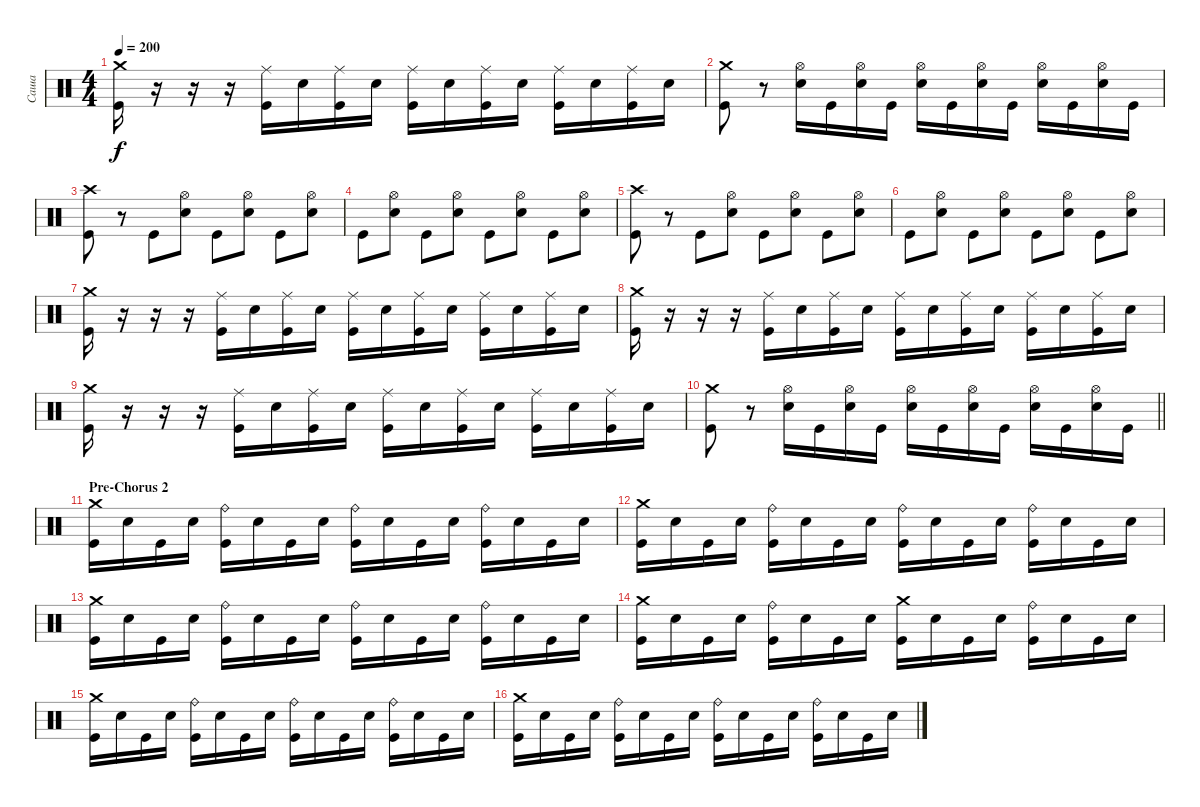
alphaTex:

\track ("Саша" "Саша") {instrument percussion}
\staff {score}
\articulation defaults
\ts (4 4)
\tempo 200
\clef neutral
\ks c
("Crash medium (hit)" "Kick (hit)").16{dy f} r.16 r.16 r.16 ("Ride (middle)" "Kick (hit)").16 "Electric Snare (hit)".16 ("Ride (middle)" "Kick (hit)").16 "Electric Snare (hit)".16 ("Ride (middle)" "Kick (hit)").16 "Electric Snare (hit)".16 ("Ride (middle)" "Kick (hit)").16 "Electric Snare (hit)".16 ("Ride (middle)" "Kick (hit)").16 "Electric Snare (hit)".16 ("Ride (middle)" "Kick (hit)").16 "Electric Snare (hit)".16 |
("Crash medium (hit)" "Kick (hit)").8 r.8 ("Hi-Hat (open)" "Electric Snare (hit)").16 "Kick (hit)".16 ("Hi-Hat (open)" "Electric Snare (hit)").16 "Kick (hit)".16 ("Hi-Hat (open)" "Electric Snare (hit)").16 "Kick (hit)".16 ("Hi-Hat (open)" "Electric Snare (hit)").16 "Kick (hit)".16 ("Hi-Hat (open)" "Electric Snare (hit)").16 "Kick (hit)".16 ("Hi-Hat (open)" "Electric Snare (hit)").16 "Kick (hit)".16 |
("Crash high (hit)" "Kick (hit)").8 r.8 "Kick (hit)".8 ("Hi-Hat (open)" "Electric Snare (hit)").8 "Kick (hit)".8 ("Hi-Hat (open)" "Electric Snare (hit)").8 "Kick (hit)".8 ("Hi-Hat (open)" "Electric Snare (hit)").8 |
"Kick (hit)".8 ("Hi-Hat (open)" "Electric Snare (hit)").8 "Kick (hit)".8 ("Hi-Hat (open)" "Electric Snare (hit)").8 "Kick (hit)".8 ("Hi-Hat (open)" "Electric Snare (hit)").8 "Kick (hit)".8 ("Hi-Hat (open)" "Electric Snare (hit)").8 |
("Crash high (hit)" "Kick (hit)").8 r.8 "Kick (hit)".8 ("Hi-Hat (open)" "Electric Snare (hit)").8 "Kick (hit)".8 ("Hi-Hat (open)" "Electric Snare (hit)").8 "Kick (hit)".8 ("Hi-Hat (open)" "Electric Snare (hit)").8 |
"Kick (hit)".8 ("Hi-Hat (open)" "Electric Snare (hit)").8 "Kick (hit)".8 ("Hi-Hat (open)" "Electric Snare (hit)").8 "Kick (hit)".8 ("Hi-Hat (open)" "Electric Snare (hit)").8 "Kick (hit)".8 ("Hi-Hat (open)" "Electric Snare (hit)").8 |
("Crash medium (hit)" "Kick (hit)").16 r.16 r.16 r.16 ("Ride (middle)" "Kick (hit)").16 "Electric Snare (hit)".16 ("Ride (middle)" "Kick (hit)").16 "Electric Snare (hit)".16 ("Ride (middle)" "Kick (hit)").16 "Electric Snare (hit)".16 ("Ride (middle)" "Kick (hit)").16 "Electric Snare (hit)".16 ("Ride (middle)" "Kick (hit)").16 "Electric Snare (hit)".16 ("Ride (middle)" "Kick (hit)").16 "Electric Snare (hit)".16 |
("Crash medium (hit)" "Kick (hit)").16 r.16 r.16 r.16 ("Ride (middle)" "Kick (hit)").16 "Electric Snare (hit)".16 ("Ride (middle)" "Kick (hit)").16 "Electric Snare (hit)".16 ("Ride (middle)" "Kick (hit)").16 "Electric Snare (hit)".16 ("Ride (middle)" "Kick (hit)").16 "Electric Snare (hit)".16 ("Ride (middle)" "Kick (hit)").16 "Electric Snare (hit)".16 ("Ride (middle)" "Kick (hit)").16 "Electric Snare (hit)".16 |
("Crash medium (hit)" "Kick (hit)").16 r.16 r.16 r.16 ("Ride (middle)" "Kick (hit)").16 "Electric Snare (hit)".16 ("Ride (middle)" "Kick (hit)").16 "Electric Snare (hit)".16 ("Ride (middle)" "Kick (hit)").16 "Electric Snare (hit)".16 ("Ride (middle)" "Kick (hit)").16 "Electric Snare (hit)".16 ("Ride (middle)" "Kick (hit)").16 "Electric Snare (hit)".16 ("Ride (middle)" "Kick (hit)").16 "Electric Snare (hit)".16 |
\barLineRight lightlight
("Crash medium (hit)" "Kick (hit)").8 r.8 ("Hi-Hat (open)" "Electric Snare (hit)").16 "Kick (hit)".16 ("Hi-Hat (open)" "Electric Snare (hit)").16 "Kick (hit)".16 ("Hi-Hat (open)" "Electric Snare (hit)").16 "Kick (hit)".16 ("Hi-Hat (open)" "Electric Snare (hit)").16 "Kick (hit)".16 ("Hi-Hat (open)" "Electric Snare (hit)").16 "Kick (hit)".16 ("Hi-Hat (open)" "Electric Snare (hit)").16 "Kick (hit)".16 |
\section ("" "Pre-Chorus 2")
("Crash medium (hit)" "Kick (hit)").16 "Electric Snare (hit)".16 "Kick (hit)".16 "Electric Snare (hit)".16 ("Ride (bell)" "Kick (hit)").16 "Electric Snare (hit)".16 "Kick (hit)".16 "Electric Snare (hit)".16 ("Ride (bell)" "Kick (hit)").16 "Electric Snare (hit)".16 "Kick (hit)".16 "Electric Snare (hit)".16 ("Ride (bell)" "Kick (hit)").16 "Electric Snare (hit)".16 "Kick (hit)".16 "Electric Snare (hit)".16 |
("Crash medium (hit)" "Kick (hit)").16 "Electric Snare (hit)".16 "Kick (hit)".16 "Electric Snare (hit)".16 ("Ride (bell)" "Kick (hit)").16 "Electric Snare (hit)".16 "Kick (hit)".16 "Electric Snare (hit)".16 ("Ride (bell)" "Kick (hit)").16 "Electric Snare (hit)".16 "Kick (hit)".16 "Electric Snare (hit)".16 ("Ride (bell)" "Kick (hit)").16 "Electric Snare (hit)".16 "Kick (hit)".16 "Electric Snare (hit)".16 |
("Crash medium (hit)" "Kick (hit)").16 "Electric Snare (hit)".16 "Kick (hit)".16 "Electric Snare (hit)".16 ("Ride (bell)" "Kick (hit)").16 "Electric Snare (hit)".16 "Kick (hit)".16 "Electric Snare (hit)".16 ("Ride (bell)" "Kick (hit)").16 "Electric Snare (hit)".16 "Kick (hit)".16 "Electric Snare (hit)".16 ("Ride (bell)" "Kick (hit)").16 "Electric Snare (hit)".16 "Kick (hit)".16 "Electric Snare (hit)".16 |
("Crash medium (hit)" "Kick (hit)").16 "Electric Snare (hit)".16 "Kick (hit)".16 "Electric Snare (hit)".16 ("Ride (bell)" "Kick (hit)").16 "Electric Snare (hit)".16 "Kick (hit)".16 "Electric Snare (hit)".16 ("Crash medium (hit)" "Kick (hit)").16 "Electric Snare (hit)".16 "Kick (hit)".16 "Electric Snare (hit)".16 ("Ride (bell)" "Kick (hit)").16 "Electric Snare (hit)".16 "Kick (hit)".16 "Electric Snare (hit)".16 |
("Crash medium (hit)" "Kick (hit)").16 "Electric Snare (hit)".16 "Kick (hit)".16 "Electric Snare (hit)".16 ("Ride (bell)" "Kick (hit)").16 "Electric Snare (hit)".16 "Kick (hit)".16 "Electric Snare (hit)".16 ("Ride (bell)" "Kick (hit)").16 "Electric Snare (hit)".16 "Kick (hit)".16 "Electric Snare (hit)".16 ("Ride (bell)" "Kick (hit)").16 "Electric Snare (hit)".16 "Kick (hit)".16 "Electric Snare (hit)".16 |
("Crash medium (hit)" "Kick (hit)").16 "Electric Snare (hit)".16 "Kick (hit)".16 "Electric Snare (hit)".16 ("Ride (bell)" "Kick (hit)").16 "Electric Snare (hit)".16 "Kick (hit)".16 "Electric Snare (hit)".16 ("Ride (bell)" "Kick (hit)").16 "Electric Snare (hit)".16 "Kick (hit)".16 "Electric Snare (hit)".16 ("Ride (bell)" "Kick (hit)").16 "Electric Snare (hit)".16 "Kick (hit)".16 "Electric Snare (hit)".16
